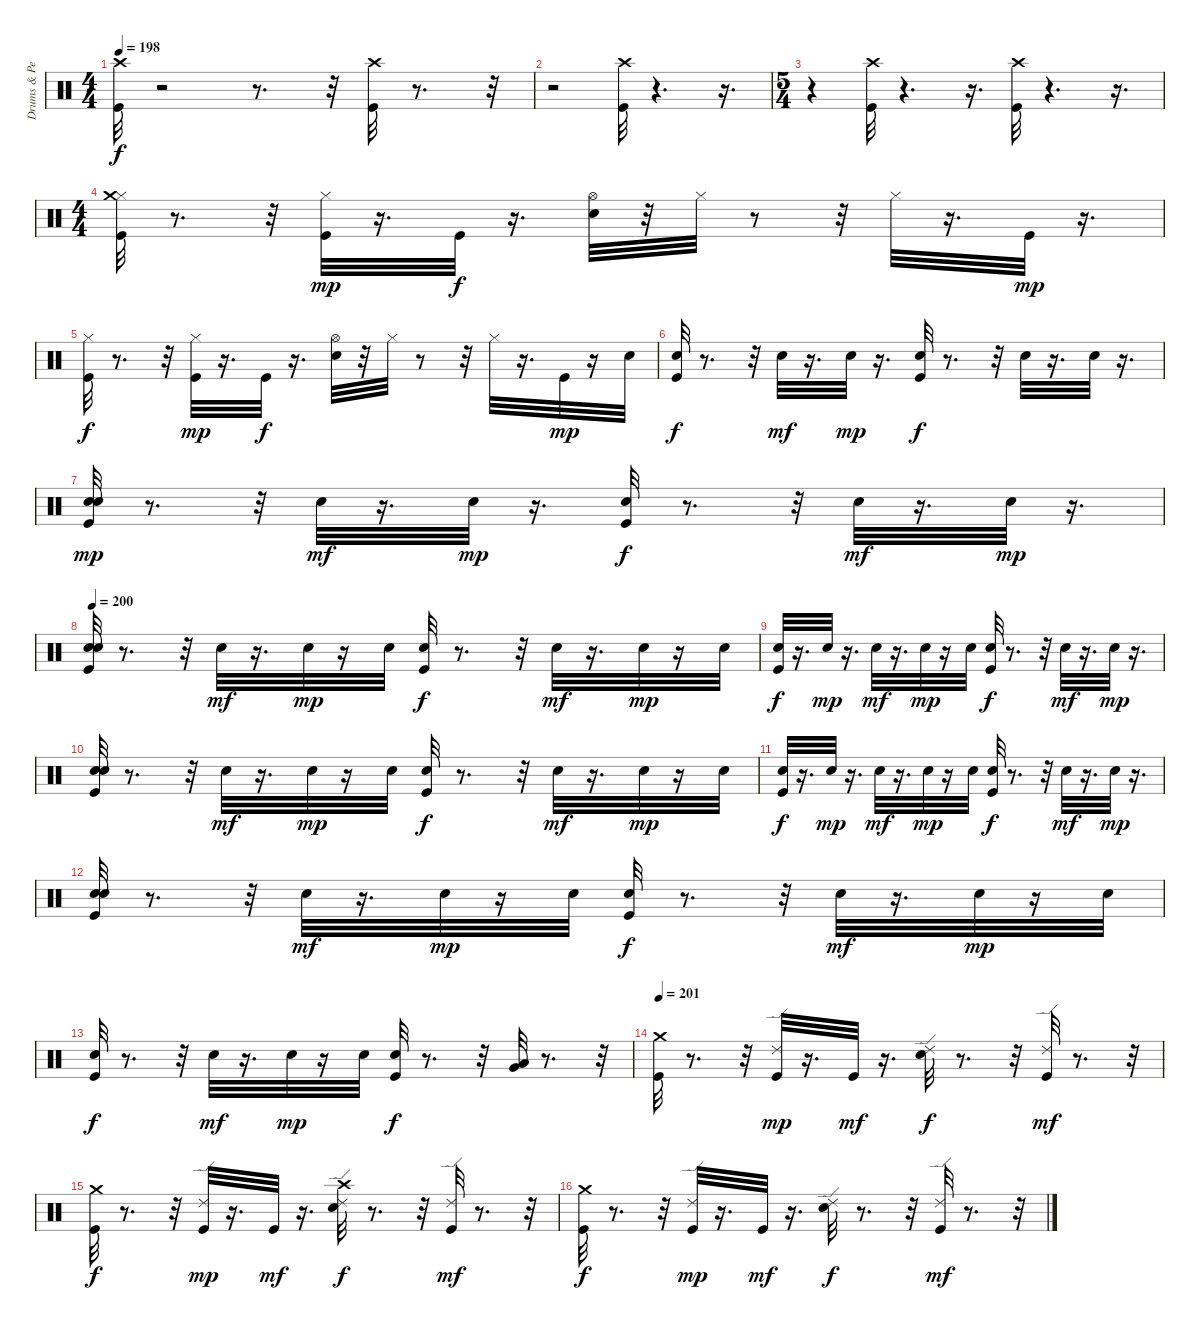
\track ("Drums & Percussion" "Drums & Pe") {instrument percussion}
\staff {score}
\articulation defaults
\ts (4 4)
\tempo 198
\clef neutral
\ks c
("Crash high (hit)" "Kick (hit)").32{dy f} r.2 r.8{d} r.32 ("Kick (hit)" "Crash high (hit)").32 r.8{d} r.32 |
r.2 ("Kick (hit)" "Crash high (hit)").32 r.4{d} r.16{d} |
\ts (5 4)
r.4 ("Kick (hit)" "Crash high (hit)").32 r.4{d} r.16{d} ("Crash high (hit)" "Kick (hit)").32 r.4{d} r.16{d} |
\ts (4 4)
("Hi-Hat (closed)" "Kick (hit)" "Crash medium (hit)").32 r.8{d} r.32 ("Hi-Hat (closed)" "Kick (hit)").32{dy mp} r.16{d} "Kick (hit)".32{dy f} r.16{d} ("Hi-Hat (open)" "Snare (hit) 2").32 r.32 "Hi-Hat (closed)".32 r.8 r.32 "Hi-Hat (closed)".32 r.16{d} "Kick (hit)".32{dy mp} r.16{d} |
("Hi-Hat (closed)" "Kick (hit)").32{dy f} r.8{d} r.32 ("Hi-Hat (closed)" "Kick (hit)").32{dy mp} r.16{d} "Kick (hit)".32{dy f} r.16{d} ("Hi-Hat (open)" "Snare (hit) 2").32 r.32 "Hi-Hat (closed)".32 r.8 r.32 "Hi-Hat (closed)".32 r.16{d} "Kick (hit)".32{dy mp} r.16 "Electric Snare (hit)".32 |
("Snare (hit) 2" "Kick (hit)").32{dy f} r.8{d} r.32 "Snare (hit) 2".32{dy mf} r.16{d} "Snare (hit) 2".32{dy mp} r.16{d} ("Snare (hit) 2" "Kick (hit)").32{dy f} r.8{d} r.32 "Snare (hit) 2".32 r.16{d} "Snare (hit) 2".32 r.16{d} |
("Snare (hit) 2" "Kick (hit)" "Electric Snare (hit)").32{dy mp} r.8{d} r.32 "Snare (hit) 2".32{dy mf} r.16{d} "Snare (hit) 2".32{dy mp} r.16{d} ("Snare (hit) 2" "Kick (hit)").32{dy f} r.8{d} r.32 "Snare (hit) 2".32{dy mf} r.16{d} "Snare (hit) 2".32{dy mp} r.16{d} |
\tempo 200
("Snare (hit) 2" "Kick (hit)" "Electric Snare (hit)").32 r.8{d} r.32 "Snare (hit) 2".32{dy mf} r.16{d} "Snare (hit) 2".32{dy mp} r.16 "Electric Snare (hit)".32 ("Snare (hit) 2" "Kick (hit)").32{dy f} r.8{d} r.32 "Snare (hit) 2".32{dy mf} r.16{d} "Snare (hit) 2".32{dy mp} r.16 "Electric Snare (hit)".32 |
("Kick (hit)" "Snare (hit) 2").32{dy f} r.16{d} "Snare (hit) 2".32{dy mp} r.16{d} "Snare (hit) 2".32{dy mf} r.16{d} "Snare (hit) 2".32{dy mp} r.16 "Electric Snare (hit)".32 ("Kick (hit)" "Snare (hit) 2").32{dy f} r.8{d} r.32 "Snare (hit) 2".32{dy mf} r.16{d} "Snare (hit) 2".32{dy mp} r.16{d} |
("Snare (hit) 2" "Kick (hit)" "Electric Snare (hit)").32 r.8{d} r.32 "Snare (hit) 2".32{dy mf} r.16{d} "Snare (hit) 2".32{dy mp} r.16 "Electric Snare (hit)".32 ("Snare (hit) 2" "Kick (hit)").32{dy f} r.8{d} r.32 "Snare (hit) 2".32{dy mf} r.16{d} "Snare (hit) 2".32{dy mp} r.16 "Electric Snare (hit)".32 |
("Kick (hit)" "Snare (hit) 2").32{dy f} r.16{d} "Snare (hit) 2".32{dy mp} r.16{d} "Snare (hit) 2".32{dy mf} r.16{d} "Snare (hit) 2".32{dy mp} r.16 "Electric Snare (hit)".32 ("Kick (hit)" "Snare (hit) 2").32{dy f} r.8{d} r.32 "Snare (hit) 2".32{dy mf} r.16{d} "Snare (hit) 2".32{dy mp} r.16{d} |
("Snare (hit) 2" "Kick (hit)" "Electric Snare (hit)").32 r.8{d} r.32 "Snare (hit) 2".32{dy mf} r.16{d} "Snare (hit) 2".32{dy mp} r.16 "Electric Snare (hit)".32 ("Snare (hit) 2" "Kick (hit)").32{dy f} r.8{d} r.32 "Snare (hit) 2".32{dy mf} r.16{d} "Snare (hit) 2".32{dy mp} r.16 "Electric Snare (hit)".32 |
("Kick (hit)" "Snare (hit) 2").32{dy f} r.8{d} r.32 "Snare (hit) 2".32{dy mf} r.16{d} "Snare (hit) 2".32{dy mp} r.16 "Electric Snare (hit)".32 ("Kick (hit)" "Snare (hit) 2").32{dy f} r.8{d} r.32 ("Low Tom (hit)" "Very Low Tom (hit)").32 r.8{d} r.32 |
\tempo 201
("Crash medium (hit)" "Kick (hit)").32 r.8{d} r.32 ("Ride (edge) 2" "Kick (hit)").32{dy mp} r.16{d} "Kick (hit)".32{dy mf} r.16{d} ("Ride (edge) 2" "Snare (hit) 2").32{dy f} r.8{d} r.32 ("Ride (edge) 2" "Kick (hit)").32{dy mf} r.8{d} r.32 |
("Crash medium (hit)" "Kick (hit)").32{dy f} r.8{d} r.32 ("Kick (hit)" "Ride (edge) 2").32{dy mp} r.16{d} "Kick (hit)".32{dy mf} r.16{d} ("Crash high (hit)" "Ride (edge) 2" "Snare (hit) 2").32{dy f} r.8{d} r.32 ("Ride (edge) 2" "Kick (hit)").32{dy mf} r.8{d} r.32 |
("Crash medium (hit)" "Kick (hit)").32{dy f} r.8{d} r.32 ("Ride (edge) 2" "Kick (hit)").32{dy mp} r.16{d} "Kick (hit)".32{dy mf} r.16{d} ("Ride (edge) 2" "Snare (hit) 2").32{dy f} r.8{d} r.32 ("Ride (edge) 2" "Kick (hit)").32{dy mf} r.8{d} r.32
